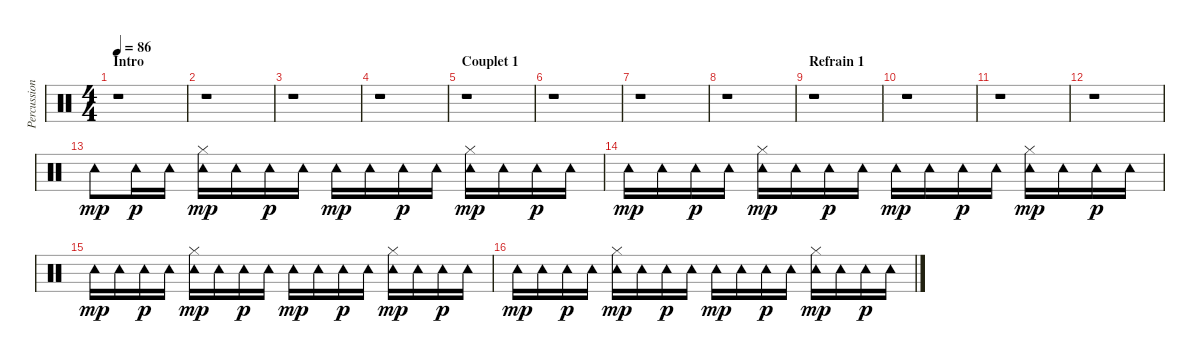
\track ("Percussion" "Percussion") {instrument percussion}
\staff {score}
\articulation defaults
\ts (4 4)
\section ("" "Intro")
\tempo 86
\clef neutral
\ks c
r.1{dy mp} |
r.1 |
r.1 |
r.1 |
\section ("" "Couplet 1")
r.1 |
r.1 |
r.1 |
r.1 |
\section ("" "Refrain 1")
r.1 |
r.1 |
r.1 |
r.1 |
"Tambourine (hit)".8 "Tambourine (hit)".16{dy p} "Tambourine (hit)".16 ("Tambourine (hit)" "Hi-Hat (closed)").16{dy mp} "Tambourine (hit)".16 "Tambourine (hit)".16{dy p} "Tambourine (hit)".16 "Tambourine (hit)".16{dy mp} "Tambourine (hit)".16 "Tambourine (hit)".16{dy p} "Tambourine (hit)".16 ("Tambourine (hit)" "Hi-Hat (closed)").16{dy mp} "Tambourine (hit)".16 "Tambourine (hit)".16{dy p} "Tambourine (hit)".16 |
"Tambourine (hit)".16{dy mp} "Tambourine (hit)".16 "Tambourine (hit)".16{dy p} "Tambourine (hit)".16 ("Tambourine (hit)" "Hi-Hat (closed)").16{dy mp} "Tambourine (hit)".16 "Tambourine (hit)".16{dy p} "Tambourine (hit)".16 "Tambourine (hit)".16{dy mp} "Tambourine (hit)".16 "Tambourine (hit)".16{dy p} "Tambourine (hit)".16 ("Tambourine (hit)" "Hi-Hat (closed)").16{dy mp} "Tambourine (hit)".16 "Tambourine (hit)".16{dy p} "Tambourine (hit)".16 |
"Tambourine (hit)".16{dy mp} "Tambourine (hit)".16 "Tambourine (hit)".16{dy p} "Tambourine (hit)".16 ("Tambourine (hit)" "Hi-Hat (closed)").16{dy mp} "Tambourine (hit)".16 "Tambourine (hit)".16{dy p} "Tambourine (hit)".16 "Tambourine (hit)".16{dy mp} "Tambourine (hit)".16 "Tambourine (hit)".16{dy p} "Tambourine (hit)".16 ("Tambourine (hit)" "Hi-Hat (closed)").16{dy mp} "Tambourine (hit)".16 "Tambourine (hit)".16{dy p} "Tambourine (hit)".16 |
"Tambourine (hit)".16{dy mp} "Tambourine (hit)".16 "Tambourine (hit)".16{dy p} "Tambourine (hit)".16 ("Tambourine (hit)" "Hi-Hat (closed)").16{dy mp} "Tambourine (hit)".16 "Tambourine (hit)".16{dy p} "Tambourine (hit)".16 "Tambourine (hit)".16{dy mp} "Tambourine (hit)".16 "Tambourine (hit)".16{dy p} "Tambourine (hit)".16 ("Tambourine (hit)" "Hi-Hat (closed)").16{dy mp} "Tambourine (hit)".16 "Tambourine (hit)".16{dy p} "Tambourine (hit)".16
